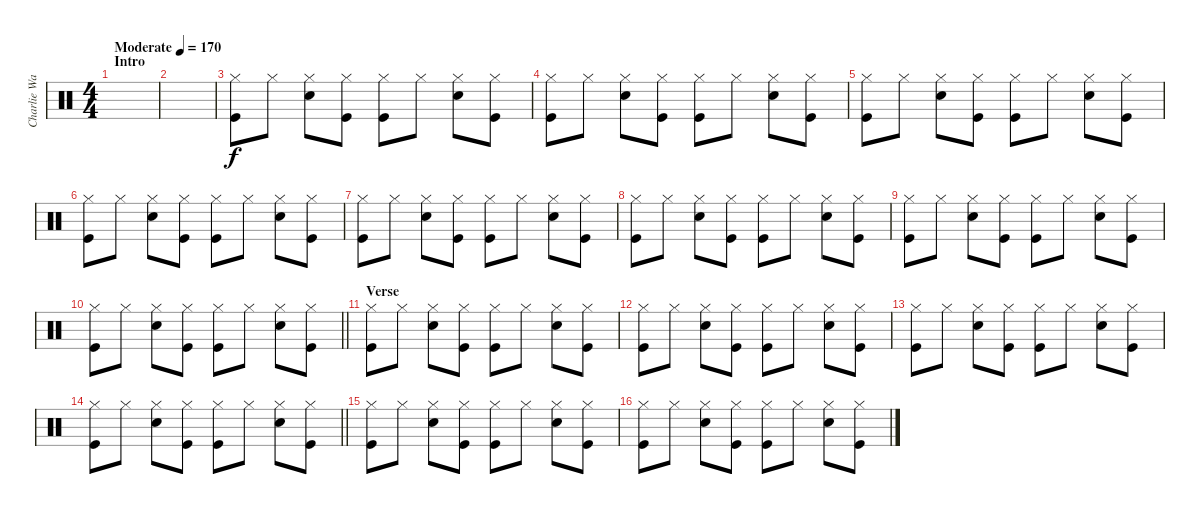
\track ("Charlie Watts" "Charlie Wa") {instrument percussion}
\staff {score}
\articulation defaults
\ts (4 4)
\section ("" "Intro")
\tempo (170 "Moderate")
\clef neutral
\ks c
|
|
("Hi-Hat (closed)" "Kick (hit)").8 "Hi-Hat (closed)".8 ("Hi-Hat (closed)" "Snare (hit) 2").8 ("Hi-Hat (closed)" "Kick (hit)").8 ("Hi-Hat (closed)" "Kick (hit)").8 "Hi-Hat (closed)".8 ("Hi-Hat (closed)" "Snare (hit) 2").8 ("Hi-Hat (closed)" "Kick (hit)").8 |
("Hi-Hat (closed)" "Kick (hit)").8 "Hi-Hat (closed)".8 ("Hi-Hat (closed)" "Snare (hit) 2").8 ("Hi-Hat (closed)" "Kick (hit)").8 ("Hi-Hat (closed)" "Kick (hit)").8 "Hi-Hat (closed)".8 ("Hi-Hat (closed)" "Snare (hit) 2").8 ("Hi-Hat (closed)" "Kick (hit)").8 |
("Hi-Hat (closed)" "Kick (hit)").8 "Hi-Hat (closed)".8 ("Hi-Hat (closed)" "Snare (hit) 2").8 ("Hi-Hat (closed)" "Kick (hit)").8 ("Hi-Hat (closed)" "Kick (hit)").8 "Hi-Hat (closed)".8 ("Hi-Hat (closed)" "Snare (hit) 2").8 ("Hi-Hat (closed)" "Kick (hit)").8 |
("Hi-Hat (closed)" "Kick (hit)").8 "Hi-Hat (closed)".8 ("Hi-Hat (closed)" "Snare (hit) 2").8 ("Hi-Hat (closed)" "Kick (hit)").8 ("Hi-Hat (closed)" "Kick (hit)").8 "Hi-Hat (closed)".8 ("Hi-Hat (closed)" "Snare (hit) 2").8 ("Hi-Hat (closed)" "Kick (hit)").8 |
("Hi-Hat (closed)" "Kick (hit)").8 "Hi-Hat (closed)".8 ("Hi-Hat (closed)" "Snare (hit) 2").8 ("Hi-Hat (closed)" "Kick (hit)").8 ("Hi-Hat (closed)" "Kick (hit)").8 "Hi-Hat (closed)".8 ("Hi-Hat (closed)" "Snare (hit) 2").8 ("Hi-Hat (closed)" "Kick (hit)").8 |
("Hi-Hat (closed)" "Kick (hit)").8 "Hi-Hat (closed)".8 ("Hi-Hat (closed)" "Snare (hit) 2").8 ("Hi-Hat (closed)" "Kick (hit)").8 ("Hi-Hat (closed)" "Kick (hit)").8 "Hi-Hat (closed)".8 ("Hi-Hat (closed)" "Snare (hit) 2").8 ("Hi-Hat (closed)" "Kick (hit)").8 |
("Hi-Hat (closed)" "Kick (hit)").8 "Hi-Hat (closed)".8 ("Hi-Hat (closed)" "Snare (hit) 2").8 ("Hi-Hat (closed)" "Kick (hit)").8 ("Hi-Hat (closed)" "Kick (hit)").8 "Hi-Hat (closed)".8 ("Hi-Hat (closed)" "Snare (hit) 2").8 ("Hi-Hat (closed)" "Kick (hit)").8 |
\barLineRight lightlight
("Hi-Hat (closed)" "Kick (hit)").8 "Hi-Hat (closed)".8 ("Hi-Hat (closed)" "Snare (hit) 2").8 ("Hi-Hat (closed)" "Kick (hit)").8 ("Hi-Hat (closed)" "Kick (hit)").8 "Hi-Hat (closed)".8 ("Hi-Hat (closed)" "Snare (hit) 2").8 ("Hi-Hat (closed)" "Kick (hit)").8 |
\section ("" "Verse")
("Hi-Hat (closed)" "Kick (hit)").8 "Hi-Hat (closed)".8 ("Hi-Hat (closed)" "Snare (hit) 2").8 ("Hi-Hat (closed)" "Kick (hit)").8 ("Hi-Hat (closed)" "Kick (hit)").8 "Hi-Hat (closed)".8 ("Hi-Hat (closed)" "Snare (hit) 2").8 ("Hi-Hat (closed)" "Kick (hit)").8 |
("Hi-Hat (closed)" "Kick (hit)").8 "Hi-Hat (closed)".8 ("Hi-Hat (closed)" "Snare (hit) 2").8 ("Hi-Hat (closed)" "Kick (hit)").8 ("Hi-Hat (closed)" "Kick (hit)").8 "Hi-Hat (closed)".8 ("Hi-Hat (closed)" "Snare (hit) 2").8 ("Hi-Hat (closed)" "Kick (hit)").8 |
("Hi-Hat (closed)" "Kick (hit)").8 "Hi-Hat (closed)".8 ("Hi-Hat (closed)" "Snare (hit) 2").8 ("Hi-Hat (closed)" "Kick (hit)").8 ("Hi-Hat (closed)" "Kick (hit)").8 "Hi-Hat (closed)".8 ("Hi-Hat (closed)" "Snare (hit) 2").8 ("Hi-Hat (closed)" "Kick (hit)").8 |
\barLineRight lightlight
("Hi-Hat (closed)" "Kick (hit)").8 "Hi-Hat (closed)".8 ("Hi-Hat (closed)" "Snare (hit) 2").8 ("Hi-Hat (closed)" "Kick (hit)").8 ("Hi-Hat (closed)" "Kick (hit)").8 "Hi-Hat (closed)".8 ("Hi-Hat (closed)" "Snare (hit) 2").8 ("Hi-Hat (closed)" "Kick (hit)").8 |
("Hi-Hat (closed)" "Kick (hit)").8 "Hi-Hat (closed)".8 ("Hi-Hat (closed)" "Snare (hit) 2").8 ("Hi-Hat (closed)" "Kick (hit)").8 ("Hi-Hat (closed)" "Kick (hit)").8 "Hi-Hat (closed)".8 ("Hi-Hat (closed)" "Snare (hit) 2").8 ("Hi-Hat (closed)" "Kick (hit)").8 |
("Hi-Hat (closed)" "Kick (hit)").8 "Hi-Hat (closed)".8 ("Hi-Hat (closed)" "Snare (hit) 2").8 ("Hi-Hat (closed)" "Kick (hit)").8 ("Hi-Hat (closed)" "Kick (hit)").8 "Hi-Hat (closed)".8 ("Hi-Hat (closed)" "Snare (hit) 2").8 ("Hi-Hat (closed)" "Kick (hit)").8
